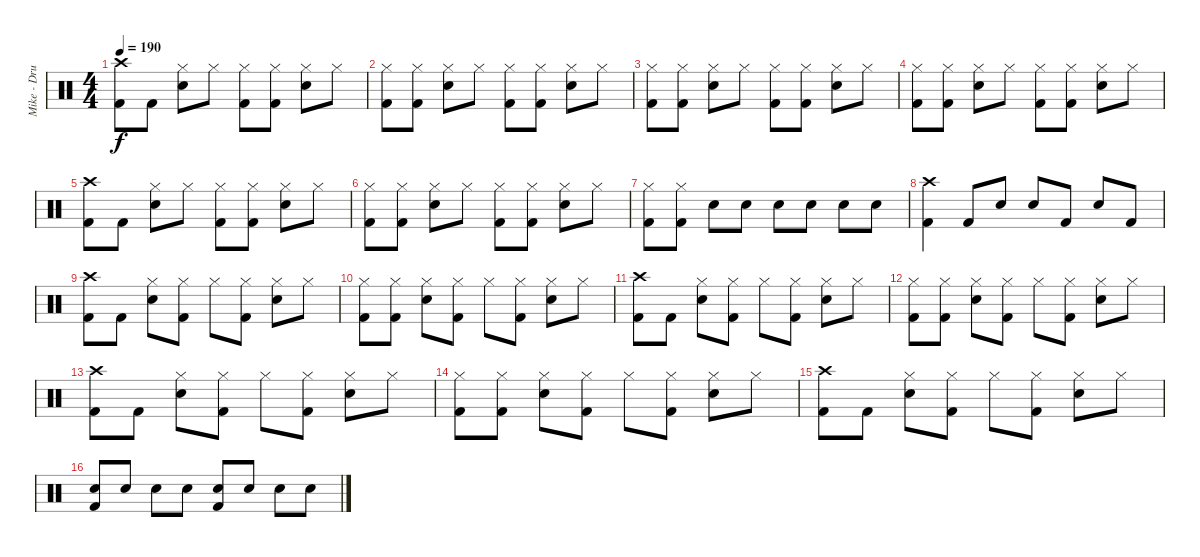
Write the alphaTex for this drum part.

\track ("Mike - Drums" "Mike - Dru") {instrument percussion}
\staff {score}
\articulation defaults
\ts (4 4)
\tempo 190
\clef neutral
\ks c
("Crash high (hit)" "Kick (hit) 2").8{dy f} "Kick (hit) 2".8 ("Hi-Hat (closed)" "Snare (hit) 2").8 "Hi-Hat (closed)".8 ("Hi-Hat (closed)" "Kick (hit) 2").8 ("Hi-Hat (closed)" "Kick (hit) 2").8 ("Hi-Hat (closed)" "Snare (hit) 2").8 "Hi-Hat (closed)".8 |
("Hi-Hat (closed)" "Kick (hit) 2").8 ("Hi-Hat (closed)" "Kick (hit) 2").8 ("Hi-Hat (closed)" "Snare (hit) 2").8 "Hi-Hat (closed)".8 ("Hi-Hat (closed)" "Kick (hit) 2").8 ("Hi-Hat (closed)" "Kick (hit) 2").8 ("Hi-Hat (closed)" "Snare (hit) 2").8 "Hi-Hat (closed)".8 |
("Hi-Hat (closed)" "Kick (hit) 2").8 ("Hi-Hat (closed)" "Kick (hit) 2").8 ("Hi-Hat (closed)" "Snare (hit) 2").8 "Hi-Hat (closed)".8 ("Hi-Hat (closed)" "Kick (hit) 2").8 ("Hi-Hat (closed)" "Kick (hit) 2").8 ("Hi-Hat (closed)" "Snare (hit) 2").8 "Hi-Hat (closed)".8 |
("Hi-Hat (closed)" "Kick (hit) 2").8 ("Hi-Hat (closed)" "Kick (hit) 2").8 ("Hi-Hat (closed)" "Snare (hit) 2").8 "Hi-Hat (closed)".8 ("Hi-Hat (closed)" "Kick (hit) 2").8 ("Hi-Hat (closed)" "Kick (hit) 2").8 ("Hi-Hat (closed)" "Snare (hit) 2").8 "Hi-Hat (closed)".8 |
("Crash high (hit)" "Kick (hit) 2").8 "Kick (hit) 2".8 ("Hi-Hat (closed)" "Snare (hit) 2").8 "Hi-Hat (closed)".8 ("Hi-Hat (closed)" "Kick (hit) 2").8 ("Hi-Hat (closed)" "Kick (hit) 2").8 ("Hi-Hat (closed)" "Snare (hit) 2").8 "Hi-Hat (closed)".8 |
("Hi-Hat (closed)" "Kick (hit) 2").8 ("Hi-Hat (closed)" "Kick (hit) 2").8 ("Hi-Hat (closed)" "Snare (hit) 2").8 "Hi-Hat (closed)".8 ("Hi-Hat (closed)" "Kick (hit) 2").8 ("Hi-Hat (closed)" "Kick (hit) 2").8 ("Hi-Hat (closed)" "Snare (hit) 2").8 "Hi-Hat (closed)".8 |
("Hi-Hat (closed)" "Kick (hit) 2").8 ("Hi-Hat (closed)" "Kick (hit) 2").8 "Snare (hit) 2".8 "Snare (hit) 2".8 "Snare (hit) 2".8 "Snare (hit) 2".8 "Snare (hit) 2".8 "Snare (hit) 2".8 |
("Crash high (hit)" "Kick (hit) 2").4 "Kick (hit) 2".8 "Snare (hit) 2".8 "Snare (hit) 2".8 "Kick (hit) 2".8 "Snare (hit) 2".8 "Kick (hit) 2".8 |
("Crash high (hit)" "Kick (hit) 2").8 "Kick (hit) 2".8 ("Hi-Hat (closed)" "Snare (hit) 2").8 ("Hi-Hat (closed)" "Kick (hit) 2").8 "Hi-Hat (closed)".8 ("Hi-Hat (closed)" "Kick (hit) 2").8 ("Hi-Hat (closed)" "Snare (hit) 2").8 "Hi-Hat (closed)".8 |
("Hi-Hat (closed)" "Kick (hit) 2").8 ("Hi-Hat (closed)" "Kick (hit) 2").8 ("Hi-Hat (closed)" "Snare (hit) 2").8 ("Hi-Hat (closed)" "Kick (hit) 2").8 "Hi-Hat (closed)".8 ("Hi-Hat (closed)" "Kick (hit) 2").8 ("Hi-Hat (closed)" "Snare (hit) 2").8 "Hi-Hat (closed)".8 |
("Crash high (hit)" "Kick (hit) 2").8 "Kick (hit) 2".8 ("Hi-Hat (closed)" "Snare (hit) 2").8 ("Hi-Hat (closed)" "Kick (hit) 2").8 "Hi-Hat (closed)".8 ("Hi-Hat (closed)" "Kick (hit) 2").8 ("Hi-Hat (closed)" "Snare (hit) 2").8 "Hi-Hat (closed)".8 |
("Hi-Hat (closed)" "Kick (hit) 2").8 ("Hi-Hat (closed)" "Kick (hit) 2").8 ("Hi-Hat (closed)" "Snare (hit) 2").8 ("Hi-Hat (closed)" "Kick (hit) 2").8 "Hi-Hat (closed)".8 ("Hi-Hat (closed)" "Kick (hit) 2").8 ("Hi-Hat (closed)" "Snare (hit) 2").8 "Hi-Hat (closed)".8 |
("Crash high (hit)" "Kick (hit) 2").8 "Kick (hit) 2".8 ("Hi-Hat (closed)" "Snare (hit) 2").8 ("Hi-Hat (closed)" "Kick (hit) 2").8 "Hi-Hat (closed)".8 ("Hi-Hat (closed)" "Kick (hit) 2").8 ("Hi-Hat (closed)" "Snare (hit) 2").8 "Hi-Hat (closed)".8 |
("Hi-Hat (closed)" "Kick (hit) 2").8 ("Hi-Hat (closed)" "Kick (hit) 2").8 ("Hi-Hat (closed)" "Snare (hit) 2").8 ("Hi-Hat (closed)" "Kick (hit) 2").8 "Hi-Hat (closed)".8 ("Hi-Hat (closed)" "Kick (hit) 2").8 ("Hi-Hat (closed)" "Snare (hit) 2").8 "Hi-Hat (closed)".8 |
("Crash high (hit)" "Kick (hit) 2").8 "Kick (hit) 2".8 ("Hi-Hat (closed)" "Snare (hit) 2").8 ("Hi-Hat (closed)" "Kick (hit) 2").8 "Hi-Hat (closed)".8 ("Hi-Hat (closed)" "Kick (hit) 2").8 ("Hi-Hat (closed)" "Snare (hit) 2").8 "Hi-Hat (closed)".8 |
("Snare (hit) 2" "Kick (hit) 2").8 "Snare (hit) 2".8 "Snare (hit) 2".8 "Snare (hit) 2".8 ("Snare (hit) 2" "Kick (hit) 2").8 "Snare (hit) 2".8 "Snare (hit) 2".8 "Snare (hit) 2".8
